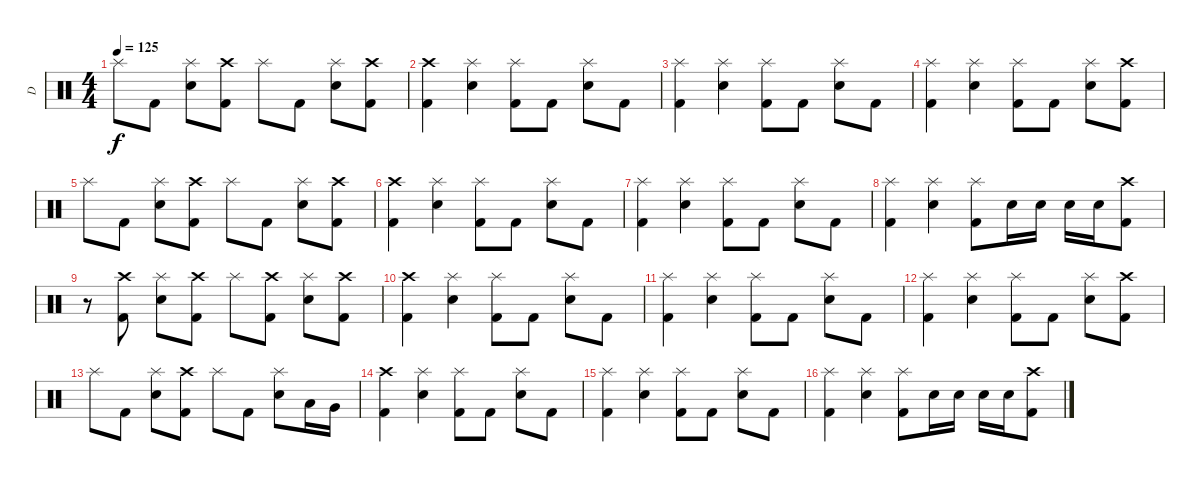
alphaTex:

\track ("D" "D") {instrument percussion}
\staff {score}
\articulation defaults
\ts (4 4)
\tempo 125
\clef neutral
\ks c "Splash (hit)".8{dy f} "Kick (hit) 2".8
("Splash (hit)" "Electric Snare (hit)").8 ("Crash high (hit)" "Kick (hit) 2").8 "Splash (hit)".8 "Kick (hit) 2".8 ("Splash (hit)" "Electric Snare (hit)").8 ("Crash high (hit)" "Kick (hit) 2").8 |
("Crash high (hit)" "Kick (hit) 2").4 ("Splash (hit)" "Electric Snare (hit)").4 ("Splash (hit)" "Kick (hit) 2").8 "Kick (hit) 2".8 ("Splash (hit)" "Electric Snare (hit)").8 "Kick (hit) 2".8 |
("Splash (hit)" "Kick (hit) 2").4 ("Splash (hit)" "Electric Snare (hit)").4 ("Splash (hit)" "Kick (hit) 2").8 "Kick (hit) 2".8 ("Splash (hit)" "Electric Snare (hit)").8 "Kick (hit) 2".8 |
("Splash (hit)" "Kick (hit) 2").4 ("Splash (hit)" "Electric Snare (hit)").4 ("Splash (hit)" "Kick (hit) 2").8 "Kick (hit) 2".8 ("Splash (hit)" "Electric Snare (hit)").8 ("Crash high (hit)" "Kick (hit) 2").8 |
"Splash (hit)".8 "Kick (hit) 2".8 ("Splash (hit)" "Electric Snare (hit)").8 ("Crash high (hit)" "Kick (hit) 2").8 "Splash (hit)".8 "Kick (hit) 2".8 ("Splash (hit)" "Electric Snare (hit)").8 ("Crash high (hit)" "Kick (hit) 2").8 |
("Crash high (hit)" "Kick (hit) 2").4 ("Splash (hit)" "Electric Snare (hit)").4 ("Splash (hit)" "Kick (hit) 2").8 "Kick (hit) 2".8 ("Splash (hit)" "Electric Snare (hit)").8 "Kick (hit) 2".8 |
("Splash (hit)" "Kick (hit) 2").4 ("Splash (hit)" "Electric Snare (hit)").4 ("Splash (hit)" "Kick (hit) 2").8 "Kick (hit) 2".8 ("Splash (hit)" "Electric Snare (hit)").8 "Kick (hit) 2".8 |
("Splash (hit)" "Kick (hit) 2").4 ("Splash (hit)" "Electric Snare (hit)").4 ("Splash (hit)" "Kick (hit) 2").8 "Electric Snare (hit)".16 "Electric Snare (hit)".16 "Electric Snare (hit)".16 "Electric Snare (hit)".16 ("Crash high (hit)" "Kick (hit) 2").8 |
r.8 ("Crash high (hit)" "Kick (hit) 2").8 ("Splash (hit)" "Electric Snare (hit)").8 ("Crash high (hit)" "Kick (hit) 2").8 "Splash (hit)".8 ("Crash high (hit)" "Kick (hit) 2").8 ("Splash (hit)" "Electric Snare (hit)").8 ("Crash high (hit)" "Kick (hit) 2").8 |
("Crash high (hit)" "Kick (hit) 2").4 ("Splash (hit)" "Electric Snare (hit)").4 ("Splash (hit)" "Kick (hit) 2").8 "Kick (hit) 2".8 ("Splash (hit)" "Electric Snare (hit)").8 "Kick (hit) 2".8 |
("Splash (hit)" "Kick (hit) 2").4 ("Splash (hit)" "Electric Snare (hit)").4 ("Splash (hit)" "Kick (hit) 2").8 "Kick (hit) 2".8 ("Splash (hit)" "Electric Snare (hit)").8 "Kick (hit) 2".8 |
("Splash (hit)" "Kick (hit) 2").4 ("Splash (hit)" "Electric Snare (hit)").4 ("Splash (hit)" "Kick (hit) 2").8 "Kick (hit) 2".8 ("Splash (hit)" "Electric Snare (hit)").8 ("Crash high (hit)" "Kick (hit) 2").8 |
"Splash (hit)".8 "Kick (hit) 2".8 ("Splash (hit)" "Electric Snare (hit)").8 ("Crash high (hit)" "Kick (hit) 2").8 "Splash (hit)".8 "Kick (hit) 2".8 ("Splash (hit)" "Electric Snare (hit)").8 "Low Tom (hit)".16 "Very Low Tom (hit)".16 |
("Crash high (hit)" "Kick (hit) 2").4 ("Splash (hit)" "Electric Snare (hit)").4 ("Splash (hit)" "Kick (hit) 2").8 "Kick (hit) 2".8 ("Splash (hit)" "Electric Snare (hit)").8 "Kick (hit) 2".8 |
("Splash (hit)" "Kick (hit) 2").4 ("Splash (hit)" "Electric Snare (hit)").4 ("Splash (hit)" "Kick (hit) 2").8 "Kick (hit) 2".8 ("Splash (hit)" "Electric Snare (hit)").8 "Kick (hit) 2".8 |
("Splash (hit)" "Kick (hit) 2").4 ("Splash (hit)" "Electric Snare (hit)").4 ("Splash (hit)" "Kick (hit) 2").8 "Electric Snare (hit)".16 "Electric Snare (hit)".16 "Electric Snare (hit)".16 "Electric Snare (hit)".16 ("Crash high (hit)" "Kick (hit) 2").8
